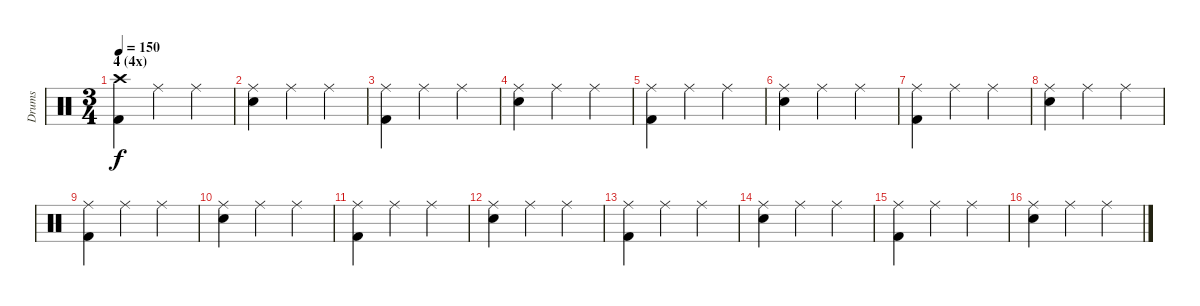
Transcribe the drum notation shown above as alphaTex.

\track ("Drums" "Drums") {instrument percussion}
\staff {score}
\articulation defaults
\ts (3 4)
\section ("" "4 (4x)")
\tempo 150
\clef neutral
\ks c
("Crash high (hit)" "Kick (hit) 2").4{dy f} "Ride (middle)".4 "Ride (middle)".4 |
("Ride (middle)" "Snare (hit) 2").4 "Ride (middle)".4 "Ride (middle)".4 |
("Ride (middle)" "Kick (hit) 2").4 "Ride (middle)".4 "Ride (middle)".4 |
("Ride (middle)" "Snare (hit) 2").4 "Ride (middle)".4 "Ride (middle)".4 |
("Ride (middle)" "Kick (hit) 2").4 "Ride (middle)".4 "Ride (middle)".4 |
("Ride (middle)" "Snare (hit) 2").4 "Ride (middle)".4 "Ride (middle)".4 |
("Ride (middle)" "Kick (hit) 2").4 "Ride (middle)".4 "Ride (middle)".4 |
("Ride (middle)" "Snare (hit) 2").4 "Ride (middle)".4 "Ride (middle)".4 |
("Ride (middle)" "Kick (hit) 2").4 "Ride (middle)".4 "Ride (middle)".4 |
("Ride (middle)" "Snare (hit) 2").4 "Ride (middle)".4 "Ride (middle)".4 |
("Ride (middle)" "Kick (hit) 2").4 "Ride (middle)".4 "Ride (middle)".4 |
("Ride (middle)" "Snare (hit) 2").4 "Ride (middle)".4 "Ride (middle)".4 |
("Ride (middle)" "Kick (hit) 2").4 "Ride (middle)".4 "Ride (middle)".4 |
("Ride (middle)" "Snare (hit) 2").4 "Ride (middle)".4 "Ride (middle)".4 |
("Ride (middle)" "Kick (hit) 2").4 "Ride (middle)".4 "Ride (middle)".4 |
("Ride (middle)" "Snare (hit) 2").4 "Ride (middle)".4 "Ride (middle)".4
